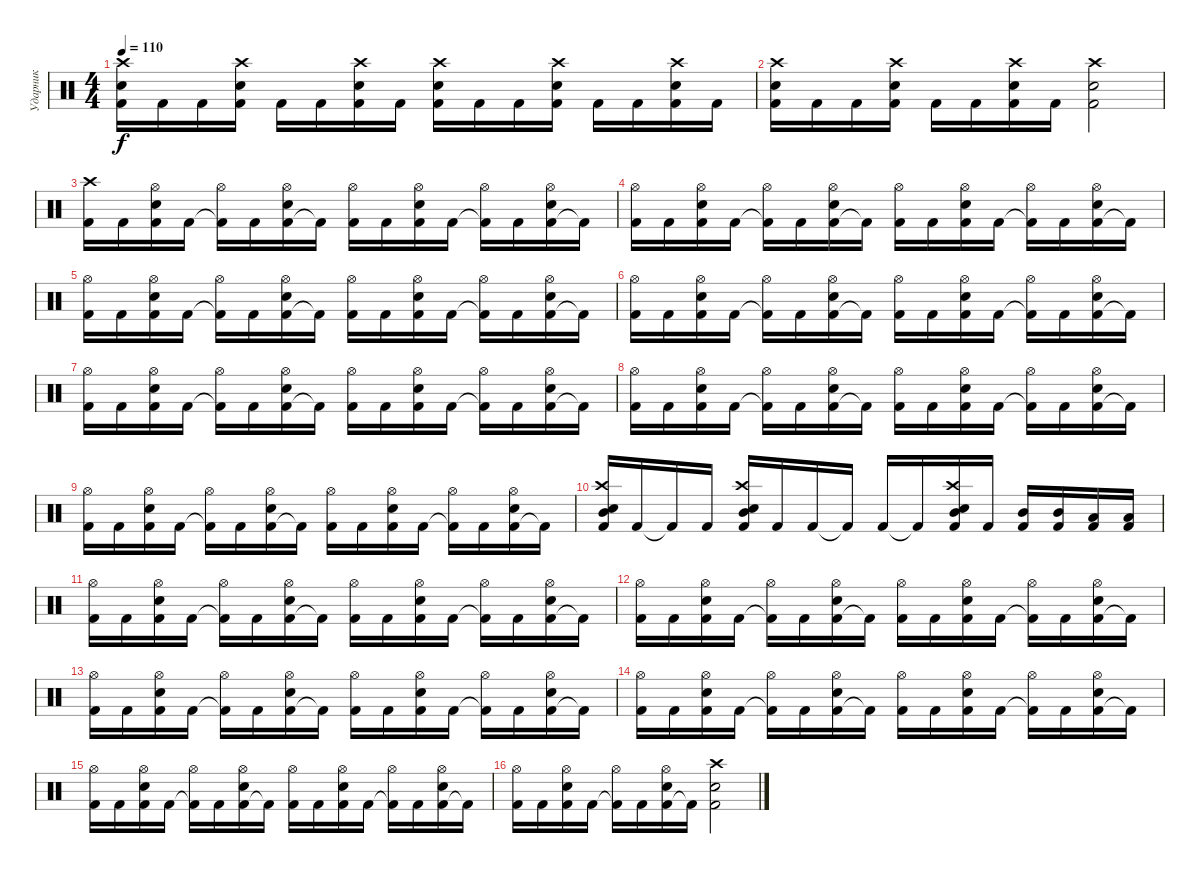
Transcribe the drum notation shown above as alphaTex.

\track ("Ударник" "Ударник") {instrument percussion}
\staff
\articulation defaults
\ts (4 4)
\tempo 110
\clef neutral
\ks c
("Kick (hit) 2" "Snare (hit) 2" "Crash high (hit)").16{dy f} "Kick (hit) 2".16 "Kick (hit) 2".16 ("Kick (hit) 2" "Snare (hit) 2" "Crash high (hit)").16 "Kick (hit) 2".16 "Kick (hit) 2".16 ("Kick (hit) 2" "Snare (hit) 2" "Crash high (hit)").16 "Kick (hit) 2".16 ("Kick (hit) 2" "Snare (hit) 2" "Crash high (hit)").16 "Kick (hit) 2".16 "Kick (hit) 2".16 ("Kick (hit) 2" "Snare (hit) 2" "Crash high (hit)").16 "Kick (hit) 2".16 "Kick (hit) 2".16 ("Kick (hit) 2" "Snare (hit) 2" "Crash high (hit)").16 "Kick (hit) 2".16 |
("Kick (hit) 2" "Snare (hit) 2" "Crash high (hit)").16 "Kick (hit) 2".16 "Kick (hit) 2".16 ("Kick (hit) 2" "Snare (hit) 2" "Crash high (hit)").16 "Kick (hit) 2".16 "Kick (hit) 2".16 ("Kick (hit) 2" "Snare (hit) 2" "Crash high (hit)").16 "Kick (hit) 2".16 ("Kick (hit) 2" "Snare (hit) 2" "Crash high (hit)").2 |
("Kick (hit) 2" "Crash high (hit)").16 "Kick (hit) 2".16 ("Kick (hit) 2" "Snare (hit) 2" "Hi-Hat (open)").16 "Kick (hit) 2".16 ("Kick (hit) 2"{t} "Hi-Hat (open)").16 "Kick (hit) 2".16 ("Kick (hit) 2" "Snare (hit) 2" "Hi-Hat (open)").16 "Kick (hit) 2"{t}.16 ("Kick (hit) 2" "Hi-Hat (open)").16 "Kick (hit) 2".16 ("Kick (hit) 2" "Snare (hit) 2" "Hi-Hat (open)").16 "Kick (hit) 2".16 ("Kick (hit) 2"{t} "Hi-Hat (open)").16 "Kick (hit) 2".16 ("Kick (hit) 2" "Snare (hit) 2" "Hi-Hat (open)").16 "Kick (hit) 2"{t}.16 |
("Kick (hit) 2" "Hi-Hat (open)").16 "Kick (hit) 2".16 ("Kick (hit) 2" "Snare (hit) 2" "Hi-Hat (open)").16 "Kick (hit) 2".16 ("Kick (hit) 2"{t} "Hi-Hat (open)").16 "Kick (hit) 2".16 ("Kick (hit) 2" "Snare (hit) 2" "Hi-Hat (open)").16 "Kick (hit) 2"{t}.16 ("Kick (hit) 2" "Hi-Hat (open)").16 "Kick (hit) 2".16 ("Kick (hit) 2" "Snare (hit) 2" "Hi-Hat (open)").16 "Kick (hit) 2".16 ("Kick (hit) 2"{t} "Hi-Hat (open)").16 "Kick (hit) 2".16 ("Kick (hit) 2" "Snare (hit) 2" "Hi-Hat (open)").16 "Kick (hit) 2"{t}.16 |
("Kick (hit) 2" "Hi-Hat (open)").16 "Kick (hit) 2".16 ("Kick (hit) 2" "Snare (hit) 2" "Hi-Hat (open)").16 "Kick (hit) 2".16 ("Kick (hit) 2"{t} "Hi-Hat (open)").16 "Kick (hit) 2".16 ("Kick (hit) 2" "Snare (hit) 2" "Hi-Hat (open)").16 "Kick (hit) 2"{t}.16 ("Kick (hit) 2" "Hi-Hat (open)").16 "Kick (hit) 2".16 ("Kick (hit) 2" "Snare (hit) 2" "Hi-Hat (open)").16 "Kick (hit) 2".16 ("Kick (hit) 2"{t} "Hi-Hat (open)").16 "Kick (hit) 2".16 ("Kick (hit) 2" "Snare (hit) 2" "Hi-Hat (open)").16 "Kick (hit) 2"{t}.16 |
("Kick (hit) 2" "Hi-Hat (open)").16 "Kick (hit) 2".16 ("Kick (hit) 2" "Snare (hit) 2" "Hi-Hat (open)").16 "Kick (hit) 2".16 ("Kick (hit) 2"{t} "Hi-Hat (open)").16 "Kick (hit) 2".16 ("Kick (hit) 2" "Snare (hit) 2" "Hi-Hat (open)").16 "Kick (hit) 2"{t}.16 ("Kick (hit) 2" "Hi-Hat (open)").16 "Kick (hit) 2".16 ("Kick (hit) 2" "Snare (hit) 2" "Hi-Hat (open)").16 "Kick (hit) 2".16 ("Kick (hit) 2"{t} "Hi-Hat (open)").16 "Kick (hit) 2".16 ("Kick (hit) 2" "Snare (hit) 2" "Hi-Hat (open)").16 "Kick (hit) 2"{t}.16 |
("Kick (hit) 2" "Hi-Hat (open)").16 "Kick (hit) 2".16 ("Kick (hit) 2" "Snare (hit) 2" "Hi-Hat (open)").16 "Kick (hit) 2".16 ("Kick (hit) 2"{t} "Hi-Hat (open)").16 "Kick (hit) 2".16 ("Kick (hit) 2" "Snare (hit) 2" "Hi-Hat (open)").16 "Kick (hit) 2"{t}.16 ("Kick (hit) 2" "Hi-Hat (open)").16 "Kick (hit) 2".16 ("Kick (hit) 2" "Snare (hit) 2" "Hi-Hat (open)").16 "Kick (hit) 2".16 ("Kick (hit) 2"{t} "Hi-Hat (open)").16 "Kick (hit) 2".16 ("Kick (hit) 2" "Snare (hit) 2" "Hi-Hat (open)").16 "Kick (hit) 2"{t}.16 |
("Kick (hit) 2" "Hi-Hat (open)").16 "Kick (hit) 2".16 ("Kick (hit) 2" "Snare (hit) 2" "Hi-Hat (open)").16 "Kick (hit) 2".16 ("Kick (hit) 2"{t} "Hi-Hat (open)").16 "Kick (hit) 2".16 ("Kick (hit) 2" "Snare (hit) 2" "Hi-Hat (open)").16 "Kick (hit) 2"{t}.16 ("Kick (hit) 2" "Hi-Hat (open)").16 "Kick (hit) 2".16 ("Kick (hit) 2" "Snare (hit) 2" "Hi-Hat (open)").16 "Kick (hit) 2".16 ("Kick (hit) 2"{t} "Hi-Hat (open)").16 "Kick (hit) 2".16 ("Kick (hit) 2" "Snare (hit) 2" "Hi-Hat (open)").16 "Kick (hit) 2"{t}.16 |
("Kick (hit) 2" "Hi-Hat (open)").16 "Kick (hit) 2".16 ("Kick (hit) 2" "Snare (hit) 2" "Hi-Hat (open)").16 "Kick (hit) 2".16 ("Kick (hit) 2"{t} "Hi-Hat (open)").16 "Kick (hit) 2".16 ("Kick (hit) 2" "Snare (hit) 2" "Hi-Hat (open)").16 "Kick (hit) 2"{t}.16 ("Kick (hit) 2" "Hi-Hat (open)").16 "Kick (hit) 2".16 ("Kick (hit) 2" "Snare (hit) 2" "Hi-Hat (open)").16 "Kick (hit) 2".16 ("Kick (hit) 2"{t} "Hi-Hat (open)").16 "Kick (hit) 2".16 ("Kick (hit) 2" "Snare (hit) 2" "Hi-Hat (open)").16 "Kick (hit) 2"{t}.16 |
("Kick (hit) 2" "Snare (hit) 2" "Mid Tom (hit)" "Crash high (hit)").16 "Kick (hit) 2".16 "Kick (hit) 2"{t}.16 "Kick (hit) 2".16 ("Kick (hit) 2" "Snare (hit) 2" "Mid Tom (hit)" "Crash high (hit)").16 "Kick (hit) 2".16 "Kick (hit) 2".16 "Kick (hit) 2"{t}.16 "Kick (hit) 2".16 "Kick (hit) 2"{t}.16 ("Kick (hit) 2" "Snare (hit) 2" "Crash high (hit)" "Mid Tom (hit)").16 "Kick (hit) 2".16 ("Kick (hit) 2" "Mid Tom (hit)").16 ("Kick (hit) 2" "Mid Tom (hit)").16 ("Kick (hit) 2" "Low Tom (hit)").16 ("Kick (hit) 2" "Low Tom (hit)").16 |
("Kick (hit) 2" "Hi-Hat (open)").16 "Kick (hit) 2".16 ("Kick (hit) 2" "Snare (hit) 2" "Hi-Hat (open)").16 "Kick (hit) 2".16 ("Kick (hit) 2"{t} "Hi-Hat (open)").16 "Kick (hit) 2".16 ("Kick (hit) 2" "Snare (hit) 2" "Hi-Hat (open)").16 "Kick (hit) 2"{t}.16 ("Kick (hit) 2" "Hi-Hat (open)").16 "Kick (hit) 2".16 ("Kick (hit) 2" "Snare (hit) 2" "Hi-Hat (open)").16 "Kick (hit) 2".16 ("Kick (hit) 2"{t} "Hi-Hat (open)").16 "Kick (hit) 2".16 ("Kick (hit) 2" "Snare (hit) 2" "Hi-Hat (open)").16 "Kick (hit) 2"{t}.16 |
("Kick (hit) 2" "Hi-Hat (open)").16 "Kick (hit) 2".16 ("Kick (hit) 2" "Snare (hit) 2" "Hi-Hat (open)").16 "Kick (hit) 2".16 ("Kick (hit) 2"{t} "Hi-Hat (open)").16 "Kick (hit) 2".16 ("Kick (hit) 2" "Snare (hit) 2" "Hi-Hat (open)").16 "Kick (hit) 2"{t}.16 ("Kick (hit) 2" "Hi-Hat (open)").16 "Kick (hit) 2".16 ("Kick (hit) 2" "Snare (hit) 2" "Hi-Hat (open)").16 "Kick (hit) 2".16 ("Kick (hit) 2"{t} "Hi-Hat (open)").16 "Kick (hit) 2".16 ("Kick (hit) 2" "Snare (hit) 2" "Hi-Hat (open)").16 "Kick (hit) 2"{t}.16 |
("Kick (hit) 2" "Hi-Hat (open)").16 "Kick (hit) 2".16 ("Kick (hit) 2" "Snare (hit) 2" "Hi-Hat (open)").16 "Kick (hit) 2".16 ("Kick (hit) 2"{t} "Hi-Hat (open)").16 "Kick (hit) 2".16 ("Kick (hit) 2" "Snare (hit) 2" "Hi-Hat (open)").16 "Kick (hit) 2"{t}.16 ("Kick (hit) 2" "Hi-Hat (open)").16 "Kick (hit) 2".16 ("Kick (hit) 2" "Snare (hit) 2" "Hi-Hat (open)").16 "Kick (hit) 2".16 ("Kick (hit) 2"{t} "Hi-Hat (open)").16 "Kick (hit) 2".16 ("Kick (hit) 2" "Snare (hit) 2" "Hi-Hat (open)").16 "Kick (hit) 2"{t}.16 |
("Kick (hit) 2" "Hi-Hat (open)").16 "Kick (hit) 2".16 ("Kick (hit) 2" "Snare (hit) 2" "Hi-Hat (open)").16 "Kick (hit) 2".16 ("Kick (hit) 2"{t} "Hi-Hat (open)").16 "Kick (hit) 2".16 ("Kick (hit) 2" "Snare (hit) 2" "Hi-Hat (open)").16 "Kick (hit) 2"{t}.16 ("Kick (hit) 2" "Hi-Hat (open)").16 "Kick (hit) 2".16 ("Kick (hit) 2" "Snare (hit) 2" "Hi-Hat (open)").16 "Kick (hit) 2".16 ("Kick (hit) 2"{t} "Hi-Hat (open)").16 "Kick (hit) 2".16 ("Kick (hit) 2" "Snare (hit) 2" "Hi-Hat (open)").16 "Kick (hit) 2"{t}.16 |
("Kick (hit) 2" "Hi-Hat (open)").16 "Kick (hit) 2".16 ("Kick (hit) 2" "Snare (hit) 2" "Hi-Hat (open)").16 "Kick (hit) 2".16 ("Kick (hit) 2"{t} "Hi-Hat (open)").16 "Kick (hit) 2".16 ("Kick (hit) 2" "Snare (hit) 2" "Hi-Hat (open)").16 "Kick (hit) 2"{t}.16 ("Kick (hit) 2" "Hi-Hat (open)").16 "Kick (hit) 2".16 ("Kick (hit) 2" "Snare (hit) 2" "Hi-Hat (open)").16 "Kick (hit) 2".16 ("Kick (hit) 2"{t} "Hi-Hat (open)").16 "Kick (hit) 2".16 ("Kick (hit) 2" "Snare (hit) 2" "Hi-Hat (open)").16 "Kick (hit) 2"{t}.16 |
("Kick (hit) 2" "Hi-Hat (open)").16 "Kick (hit) 2".16 ("Kick (hit) 2" "Snare (hit) 2" "Hi-Hat (open)").16 "Kick (hit) 2".16 ("Kick (hit) 2"{t} "Hi-Hat (open)").16 "Kick (hit) 2".16 ("Kick (hit) 2" "Snare (hit) 2" "Hi-Hat (open)").16 "Kick (hit) 2"{t}.16 ("Kick (hit) 2" "Snare (hit) 2" "Crash high (hit)").2
